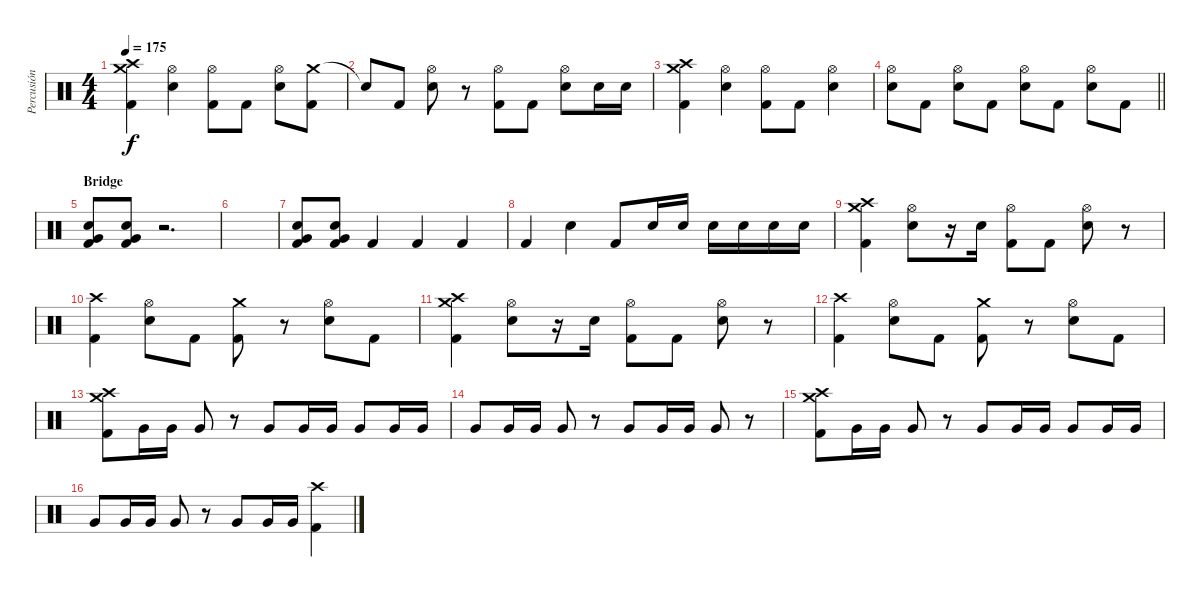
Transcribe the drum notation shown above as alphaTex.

\track ("Percusión" "Percusión") {instrument percussion}
\staff {score}
\articulation defaults
\ts (4 4)
\tempo 175
\clef neutral
\ks c
("Crash high (hit)" "Crash medium (hit)" "Kick (hit) 2").4{dy f} ("Hi-Hat (open)" "Electric Snare (hit)").4 ("Hi-Hat (open)" "Kick (hit) 2").8 "Kick (hit) 2".8 ("Hi-Hat (open)" "Electric Snare (hit)").8 ("Crash medium (hit)" "Kick (hit) 2").8 |
"Snare (hit)"{t}.8 "Kick (hit) 2".8 ("Hi-Hat (open)" "Electric Snare (hit)").8 r.8 ("Hi-Hat (open)" "Kick (hit) 2").8 "Kick (hit) 2".8 ("Hi-Hat (open)" "Electric Snare (hit)").8 "Electric Snare (hit)".16 "Electric Snare (hit)".16 |
("Crash high (hit)" "Crash medium (hit)" "Kick (hit) 2").4 ("Hi-Hat (open)" "Electric Snare (hit)").4 ("Hi-Hat (open)" "Kick (hit) 2").8 "Kick (hit) 2".8 ("Hi-Hat (open)" "Electric Snare (hit)").4 |
\barLineRight lightlight
("Hi-Hat (open)" "Electric Snare (hit)").8 "Kick (hit) 2".8 ("Hi-Hat (open)" "Electric Snare (hit)").8 "Kick (hit) 2".8 ("Hi-Hat (open)" "Electric Snare (hit)").8 "Kick (hit) 2".8 ("Hi-Hat (open)" "Electric Snare (hit)").8 "Kick (hit) 2".8 |
\section ("" "Bridge")
("Very Low Tom (hit)" "Electric Snare (hit)" "Kick (hit) 2").8 ("Very Low Tom (hit)" "Electric Snare (hit)" "Kick (hit) 2").8 r.2{d} |
|
("Very Low Tom (hit)" "Electric Snare (hit)" "Kick (hit) 2").8 ("Very Low Tom (hit)" "Electric Snare (hit)" "Kick (hit) 2").8 "Kick (hit) 2".4 "Kick (hit) 2".4 "Kick (hit) 2".4 |
"Kick (hit) 2".4 "Electric Snare (hit)".4 "Kick (hit) 2".8 "Electric Snare (hit)".16 "Electric Snare (hit)".16 "Electric Snare (hit)".16 "Electric Snare (hit)".16 "Electric Snare (hit)".16 "Electric Snare (hit)".16 |
("Crash high (hit)" "Crash medium (hit)" "Kick (hit) 2").4 ("Hi-Hat (open)" "Electric Snare (hit)").8 r.16 "Electric Snare (hit)".16 ("Hi-Hat (open)" "Kick (hit) 2").8 "Kick (hit) 2".8 ("Hi-Hat (open)" "Electric Snare (hit)").8 r.8 |
("Crash high (hit)" "Kick (hit) 2").4 ("Hi-Hat (open)" "Electric Snare (hit)").8 "Kick (hit) 2".8 ("Crash medium (hit)" "Kick (hit) 2").8 r.8 ("Hi-Hat (open)" "Electric Snare (hit)").8 "Kick (hit) 2".8 |
("Crash high (hit)" "Crash medium (hit)" "Kick (hit) 2").4 ("Hi-Hat (open)" "Electric Snare (hit)").8 r.16 "Electric Snare (hit)".16 ("Hi-Hat (open)" "Kick (hit) 2").8 "Kick (hit) 2".8 ("Hi-Hat (open)" "Electric Snare (hit)").8 r.8 |
("Crash high (hit)" "Kick (hit) 2").4 ("Hi-Hat (open)" "Electric Snare (hit)").8 "Kick (hit) 2".8 ("Crash medium (hit)" "Kick (hit) 2").8 r.8 ("Hi-Hat (open)" "Electric Snare (hit)").8 "Kick (hit) 2".8 |
("Crash high (hit)" "Crash medium (hit)" "Kick (hit) 2").8 "Very Low Tom (hit)".16 "Very Low Tom (hit)".16 "Very Low Tom (hit)".8 r.8 "Very Low Tom (hit)".8 "Very Low Tom (hit)".16 "Very Low Tom (hit)".16 "Very Low Tom (hit)".8 "Very Low Tom (hit)".16 "Very Low Tom (hit)".16 |
"Very Low Tom (hit)".8 "Very Low Tom (hit)".16 "Very Low Tom (hit)".16 "Very Low Tom (hit)".8 r.8 "Very Low Tom (hit)".8 "Very Low Tom (hit)".16 "Very Low Tom (hit)".16 "Very Low Tom (hit)".8 r.8 |
("Crash high (hit)" "Crash medium (hit)" "Kick (hit) 2").8 "Very Low Tom (hit)".16 "Very Low Tom (hit)".16 "Very Low Tom (hit)".8 r.8 "Very Low Tom (hit)".8 "Very Low Tom (hit)".16 "Very Low Tom (hit)".16 "Very Low Tom (hit)".8 "Very Low Tom (hit)".16 "Very Low Tom (hit)".16 |
"Very Low Tom (hit)".8 "Very Low Tom (hit)".16 "Very Low Tom (hit)".16 "Very Low Tom (hit)".8 r.8 "Very Low Tom (hit)".8 "Very Low Tom (hit)".16 "Very Low Tom (hit)".16 ("Crash high (hit)" "Kick (hit) 2").4
